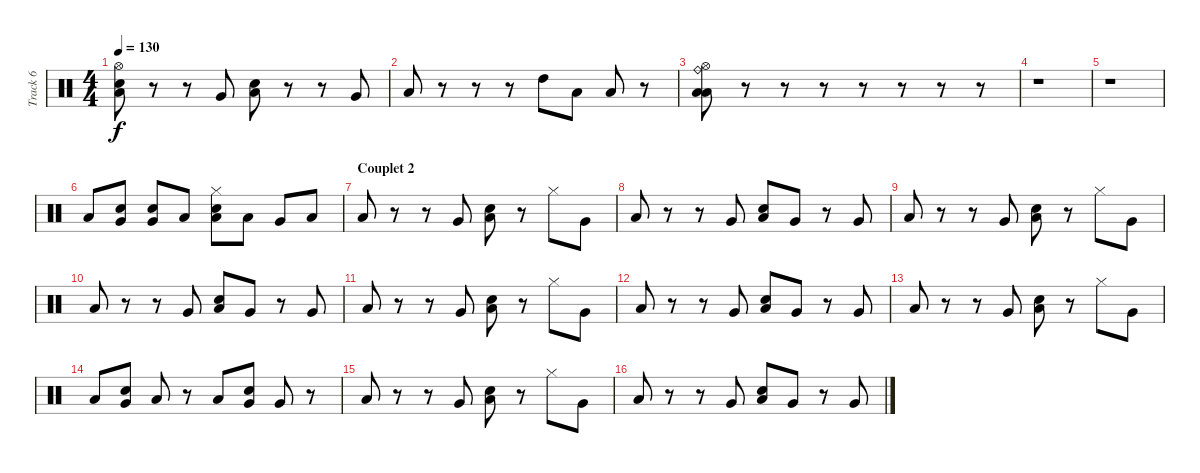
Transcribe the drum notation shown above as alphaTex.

\track ("Track 6" "Track 6") {instrument percussion}
\staff {score}
\articulation defaults
\ts (4 4)
\tempo 130
\clef neutral
\ks c
("Low Floor Tom (hit)" "Snare (hit) 2" "Hi-Hat (open)").8{dy f} r.8 r.8 "Very Low Tom (hit)".8 ("Low Tom (hit)" "Snare (hit) 2").8 r.8 r.8 "Very Low Tom (hit)".8 |
"Low Floor Tom (hit)".8 r.8 r.8 r.8 "High Tom (hit)".8 "Low Tom (hit)".8 "Low Floor Tom (hit)".8 r.8 |
("Low Floor Tom (hit)" "Low Tom (hit)" "Ride (bell)" "Hi-Hat (open)").8 r.8 r.8 r.8 r.8 r.8 r.8 r.8 |
r.1 |
r.1 |
"Low Tom (hit)".8 ("Very Low Tom (hit)" "Snare (hit) 2").8 ("Very Low Tom (hit)" "Snare (hit) 2").8 "Low Floor Tom (hit)".8 ("Low Tom (hit)" "Snare (hit) 2" "Hi-Hat (closed)").8 "Low Tom (hit)".8 "Very Low Tom (hit)".8 "Low Floor Tom (hit)".8 |
\section ("" "Couplet 2")
"Low Floor Tom (hit)".8 r.8 r.8 "Very Low Tom (hit)".8 ("Low Tom (hit)" "Snare (hit) 2").8 r.8 "Hi-Hat (closed)".8 "Very Low Tom (hit)".8 |
"Low Floor Tom (hit)".8 r.8 r.8 "Very Low Tom (hit)".8 ("Low Tom (hit)" "Snare (hit) 2").8 "Very Low Tom (hit)".8 r.8 "Very Low Tom (hit)".8 |
"Low Floor Tom (hit)".8 r.8 r.8 "Very Low Tom (hit)".8 ("Low Tom (hit)" "Snare (hit) 2").8 r.8 "Hi-Hat (closed)".8 "Very Low Tom (hit)".8 |
"Low Floor Tom (hit)".8 r.8 r.8 "Very Low Tom (hit)".8 ("Low Tom (hit)" "Snare (hit) 2").8 "Very Low Tom (hit)".8 r.8 "Very Low Tom (hit)".8 |
"Low Floor Tom (hit)".8 r.8 r.8 "Very Low Tom (hit)".8 ("Low Tom (hit)" "Snare (hit) 2").8 r.8 "Hi-Hat (closed)".8 "Very Low Tom (hit)".8 |
"Low Floor Tom (hit)".8 r.8 r.8 "Very Low Tom (hit)".8 ("Low Tom (hit)" "Snare (hit) 2").8 "Very Low Tom (hit)".8 r.8 "Very Low Tom (hit)".8 |
"Low Floor Tom (hit)".8 r.8 r.8 "Very Low Tom (hit)".8 ("Low Tom (hit)" "Snare (hit) 2").8 r.8 "Hi-Hat (closed)".8 "Very Low Tom (hit)".8 |
"Low Floor Tom (hit)".8 ("Very Low Tom (hit)" "Snare (hit) 2").8 "Low Floor Tom (hit)".8 r.8 "Low Tom (hit)".8 ("Very Low Tom (hit)" "Snare (hit) 2").8 "Very Low Tom (hit)".8 r.8 |
"Low Floor Tom (hit)".8 r.8 r.8 "Very Low Tom (hit)".8 ("Low Tom (hit)" "Snare (hit) 2").8 r.8 "Hi-Hat (closed)".8 "Very Low Tom (hit)".8 |
"Low Floor Tom (hit)".8 r.8 r.8 "Very Low Tom (hit)".8 ("Low Tom (hit)" "Snare (hit) 2").8 "Very Low Tom (hit)".8 r.8 "Very Low Tom (hit)".8
